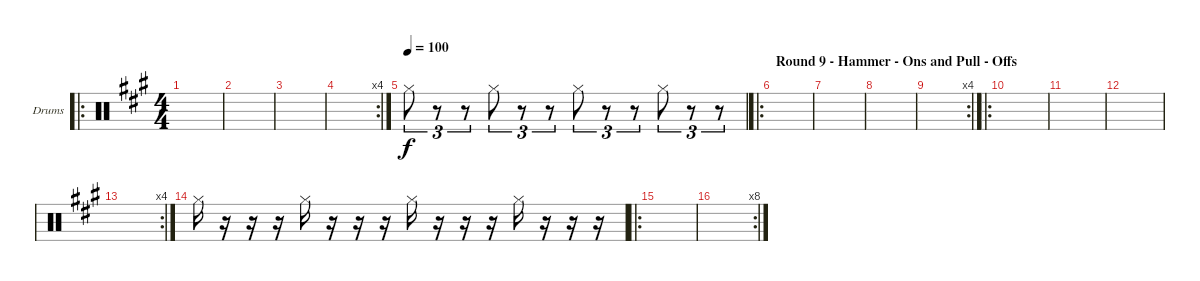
\defaultSystemsLayout 4
\bracketExtendMode groupsimilarinstruments
\firstSystemTrackNameOrientation horizontal
\otherSystemsTrackNameOrientation horizontal
\track ("Drumkit" "Drums") {instrument percussion}
\staff {score}
\articulation defaults
\ro
\ts (4 4)
\tempo (120 hide)
\clef neutral
\scale
0.343284
\ks a
|
\scale
0.322034 |
\scale
0.322034 |
\rc 4
\scale
0.355932 |
\tempo 100
\scale
0.311475 "Hi-Hat (closed)".8{tu (3 2)} r.8{tu (3 2)} r.8{tu (3 2)} "Hi-Hat (closed)".8{tu (3 2)} r.8{tu (3 2)} r.8{tu (3 2)} "Hi-Hat (closed)".8{tu (3 2)} r.8{tu (3 2)} r.8{tu (3 2)} "Hi-Hat (closed)".8{tu (3 2)} r.8{tu (3 2)} r.8{tu (3 2)} |
\ro
\section ("" "Round 9 - Hammer - Ons and Pull - Offs")
\tempo (100 hide)
\scale
0.377049 |
\scale
0.311475 |
\scale
0.301587 |
\rc 4
\scale
0.333333 |
\ro
\scale
0.365079 |
\scale
0.322034 |
\scale
0.322034 |
\rc 4
\scale
0.355932 |
\scale
0.301587 "Hi-Hat (closed)".16 r.16 r.16 r.16 "Hi-Hat (closed)".16 r.16 r.16 r.16 "Hi-Hat (closed)".16 r.16 r.16 r.16 "Hi-Hat (closed)".16 r.16 r.16 r.16 |
\ro
\scale
0.365079 |
\rc 8
\scale
0.333333
